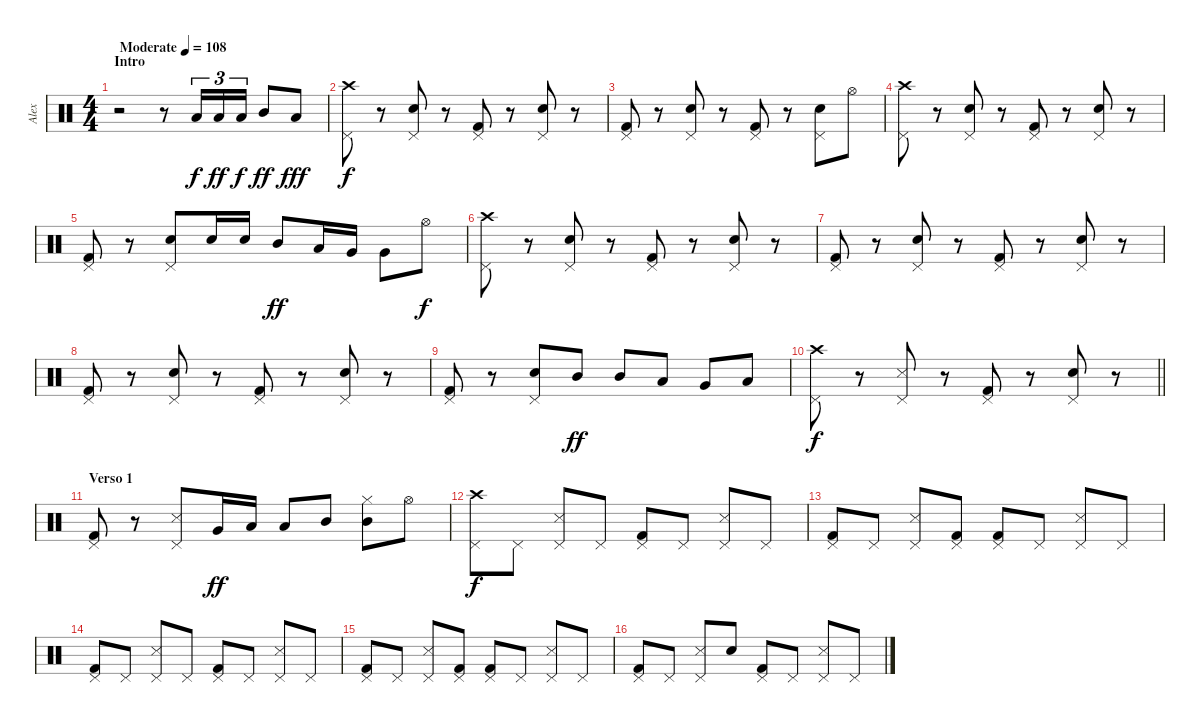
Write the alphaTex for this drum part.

\track ("Alex" "Alex") {instrument percussion}
\staff {score}
\articulation defaults
\ts (4 4)
\section ("" "Intro")
\tempo (108 "Moderate")
\clef neutral
\ks c
r.2{dy f} r.8 "Low Tom (hit)".16{tu (3 2)} "Low Tom (hit)".16{tu (3 2) dy ff} "Low Tom (hit)".16{tu (3 2) dy f} "Mid Tom (hit)".8{dy ff} "Low Tom (hit)".8{dy fff} |
("Crash high (hit)" "Pedal Hi-Hat (hit)").8{dy f} r.8 ("Electric Snare (hit)" "Pedal Hi-Hat (hit)").8 r.8 ("Kick (hit) 2" "Pedal Hi-Hat (hit)").8 r.8 ("Electric Snare (hit)" "Pedal Hi-Hat (hit)").8 r.8 |
("Kick (hit) 2" "Pedal Hi-Hat (hit)").8 r.8 ("Electric Snare (hit)" "Pedal Hi-Hat (hit)").8 r.8 ("Kick (hit) 2" "Pedal Hi-Hat (hit)").8 r.8 ("Electric Snare (hit)" "Pedal Hi-Hat (hit)").8 "Hi-Hat (open)".8 |
("Crash high (hit)" "Pedal Hi-Hat (hit)").8 r.8 ("Electric Snare (hit)" "Pedal Hi-Hat (hit)").8 r.8 ("Kick (hit) 2" "Pedal Hi-Hat (hit)").8 r.8 ("Electric Snare (hit)" "Pedal Hi-Hat (hit)").8 r.8 |
("Kick (hit) 2" "Pedal Hi-Hat (hit)").8 r.8 ("Electric Snare (hit)" "Pedal Hi-Hat (hit)").8 "Snare (hit) 2".16 "Snare (hit) 2".16 "Mid Tom (hit)".8{dy ff} "Low Tom (hit)".16 "Very Low Tom (hit)".16 "Very Low Tom (hit)".8 "Hi-Hat (open)".8{dy f} |
("Crash high (hit)" "Pedal Hi-Hat (hit)").8 r.8 ("Electric Snare (hit)" "Pedal Hi-Hat (hit)").8 r.8 ("Kick (hit) 2" "Pedal Hi-Hat (hit)").8 r.8 ("Electric Snare (hit)" "Pedal Hi-Hat (hit)").8 r.8 |
("Kick (hit) 2" "Pedal Hi-Hat (hit)").8 r.8 ("Electric Snare (hit)" "Pedal Hi-Hat (hit)").8 r.8 ("Kick (hit) 2" "Pedal Hi-Hat (hit)").8 r.8 ("Electric Snare (hit)" "Pedal Hi-Hat (hit)").8 r.8 |
("Kick (hit) 2" "Pedal Hi-Hat (hit)").8 r.8 ("Electric Snare (hit)" "Pedal Hi-Hat (hit)").8 r.8 ("Kick (hit) 2" "Pedal Hi-Hat (hit)").8 r.8 ("Electric Snare (hit)" "Pedal Hi-Hat (hit)").8 r.8 |
("Kick (hit) 2" "Pedal Hi-Hat (hit)").8 r.8 ("Electric Snare (hit)" "Pedal Hi-Hat (hit)").8 "Mid Tom (hit)".8{dy ff} "Mid Tom (hit)".8 "Low Tom (hit)".8 "Very Low Tom (hit)".8 "Low Floor Tom (hit)".8 |
\barLineRight lightlight
("Crash high (hit)" "Pedal Hi-Hat (hit)").8{dy f} r.8 ("Snare (side stick) 3" "Pedal Hi-Hat (hit)").8 r.8 ("Kick (hit) 2" "Pedal Hi-Hat (hit)").8 r.8 ("Electric Snare (hit)" "Pedal Hi-Hat (hit)").8 r.8 |
\section ("" "Verso 1")
("Kick (hit) 2" "Pedal Hi-Hat (hit)").8 r.8 ("Snare (side stick) 3" "Pedal Hi-Hat (hit)").8 "Very Low Tom (hit)".16{dy ff} "Low Tom (hit)".16 "Low Tom (hit)".8 "Mid Tom (hit)".8 ("Mid Tom (hit)" "Hi-Hat (closed)").8 "Hi-Hat (open)".8 |
("Crash high (hit)" "Pedal Hi-Hat (hit)").8{dy f} "Pedal Hi-Hat (hit)".8 ("Snare (side stick) 3" "Pedal Hi-Hat (hit)").8 "Pedal Hi-Hat (hit)".8 ("Kick (hit) 2" "Pedal Hi-Hat (hit)").8 "Pedal Hi-Hat (hit)".8 ("Snare (side stick) 3" "Pedal Hi-Hat (hit)").8 "Pedal Hi-Hat (hit)".8 |
("Kick (hit) 2" "Pedal Hi-Hat (hit)").8 "Pedal Hi-Hat (hit)".8 ("Snare (side stick) 3" "Pedal Hi-Hat (hit)").8 ("Kick (hit) 2" "Pedal Hi-Hat (hit)").8 ("Kick (hit) 2" "Pedal Hi-Hat (hit)").8 "Pedal Hi-Hat (hit)".8 ("Snare (side stick) 3" "Pedal Hi-Hat (hit)").8 "Pedal Hi-Hat (hit)".8 |
("Kick (hit) 2" "Pedal Hi-Hat (hit)").8 "Pedal Hi-Hat (hit)".8 ("Snare (side stick) 3" "Pedal Hi-Hat (hit)").8 "Pedal Hi-Hat (hit)".8 ("Kick (hit) 2" "Pedal Hi-Hat (hit)").8 "Pedal Hi-Hat (hit)".8 ("Snare (side stick) 3" "Pedal Hi-Hat (hit)").8 "Pedal Hi-Hat (hit)".8 |
("Kick (hit) 2" "Pedal Hi-Hat (hit)").8 "Pedal Hi-Hat (hit)".8 ("Snare (side stick) 3" "Pedal Hi-Hat (hit)").8 ("Kick (hit) 2" "Pedal Hi-Hat (hit)").8 ("Kick (hit) 2" "Pedal Hi-Hat (hit)").8 "Pedal Hi-Hat (hit)".8 ("Snare (side stick) 3" "Pedal Hi-Hat (hit)").8 "Pedal Hi-Hat (hit)".8 |
("Kick (hit) 2" "Pedal Hi-Hat (hit)").8 "Pedal Hi-Hat (hit)".8 ("Snare (side stick) 3" "Pedal Hi-Hat (hit)").8 "Snare (hit)".8 ("Kick (hit) 2" "Pedal Hi-Hat (hit)").8 "Pedal Hi-Hat (hit)".8 ("Snare (side stick) 3" "Pedal Hi-Hat (hit)").8 "Pedal Hi-Hat (hit)".8
